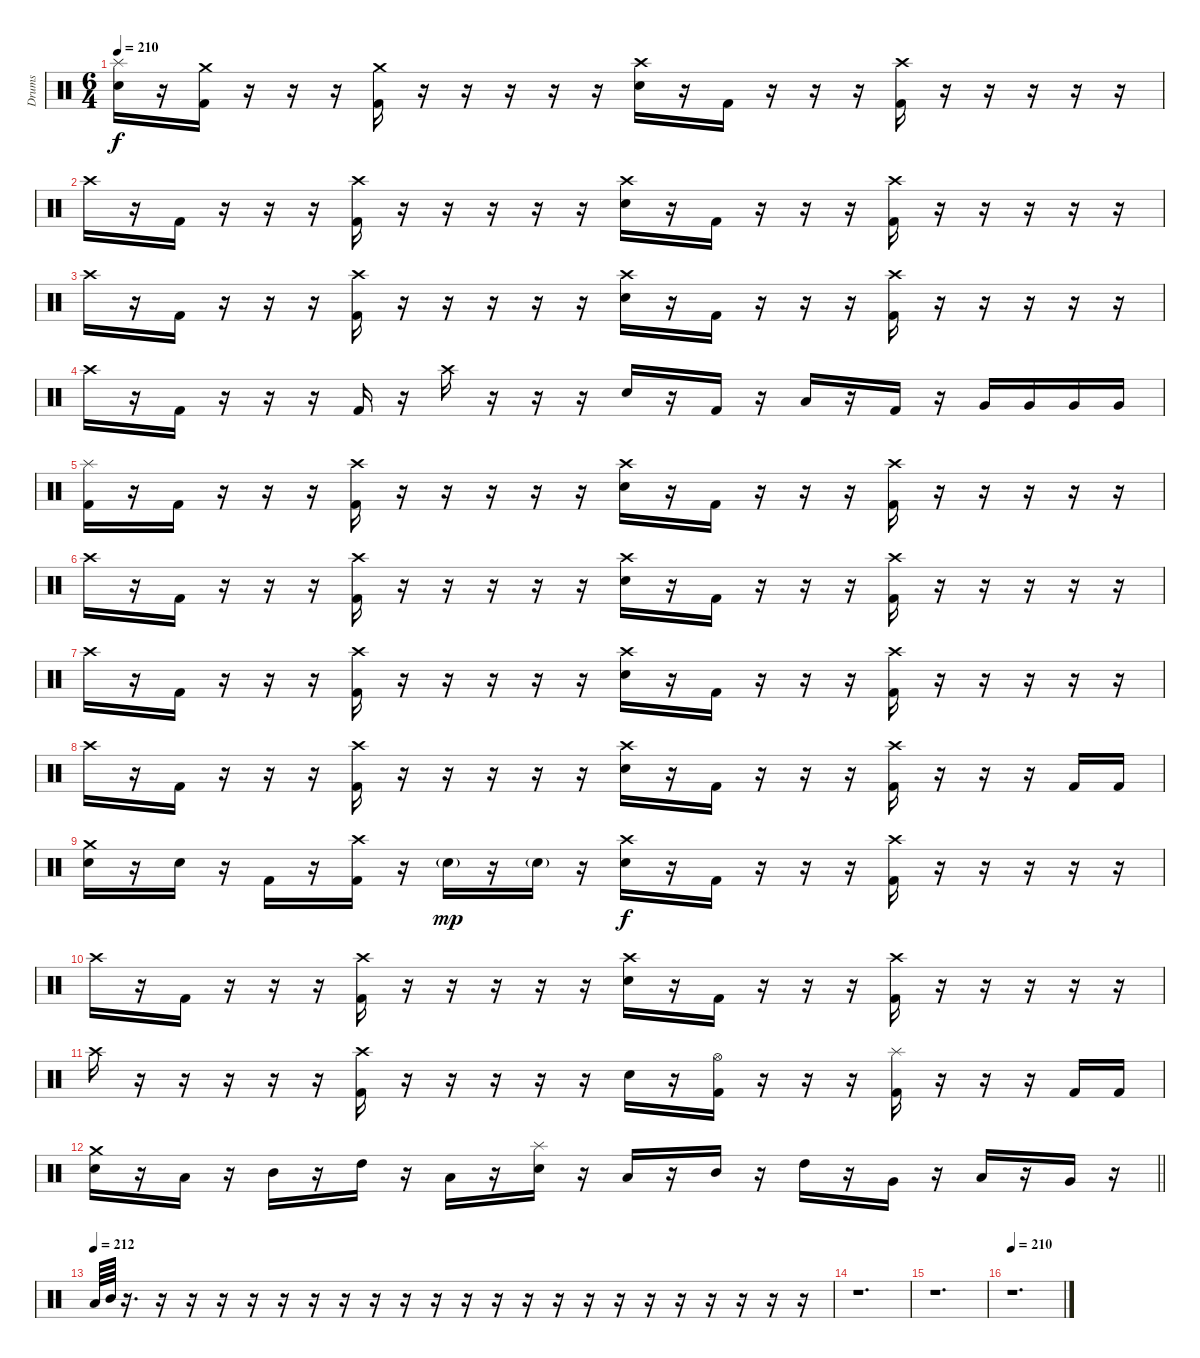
\track ("Drums" "Drums") {instrument percussion}
\staff {score}
\articulation defaults
\ts (6 4)
\tempo 210
\clef neutral
\ks c
("Splash (hit)" "Electric Snare (hit)").16{dy f} r.16 ("Crash medium (hit)" "Kick (hit) 2").16 r.16 r.16 r.16 ("Crash medium (hit)" "Kick (hit) 2").16 r.16 r.16 r.16 r.16 r.16 ("Crash high (hit)" "Electric Snare (hit)").16 r.16 "Kick (hit) 2".16 r.16 r.16 r.16 ("Crash high (hit)" "Kick (hit) 2").16 r.16 r.16 r.16 r.16 r.16 |
"Crash high (hit)".16 r.16 "Kick (hit) 2".16 r.16 r.16 r.16 ("Crash high (hit)" "Kick (hit) 2").16 r.16 r.16 r.16 r.16 r.16 ("Crash high (hit)" "Electric Snare (hit)").16 r.16 "Kick (hit) 2".16 r.16 r.16 r.16 ("Crash high (hit)" "Kick (hit) 2").16 r.16 r.16 r.16 r.16 r.16 |
"Crash high (hit)".16 r.16 "Kick (hit) 2".16 r.16 r.16 r.16 ("Crash high (hit)" "Kick (hit) 2").16 r.16 r.16 r.16 r.16 r.16 ("Crash high (hit)" "Electric Snare (hit)").16 r.16 "Kick (hit) 2".16 r.16 r.16 r.16 ("Crash high (hit)" "Kick (hit) 2").16 r.16 r.16 r.16 r.16 r.16 |
"Crash high (hit)".16 r.16 "Kick (hit) 2".16 r.16 r.16 r.16 "Kick (hit) 2".16 r.16 "Crash high (hit)".16 r.16 r.16 r.16 "Electric Snare (hit)".16 r.16 "Kick (hit) 2".16 r.16 "Low Floor Tom (hit)".16 r.16 "Kick (hit) 2".16 r.16 "Very Low Tom (hit)".16 "Very Low Tom (hit)".16 "Very Low Tom (hit)".16 "Very Low Tom (hit)".16 |
("Splash (hit)" "Kick (hit) 2").16 r.16 "Kick (hit) 2".16 r.16 r.16 r.16 ("Crash high (hit)" "Kick (hit) 2").16 r.16 r.16 r.16 r.16 r.16 ("Crash high (hit)" "Electric Snare (hit)").16 r.16 "Kick (hit) 2".16 r.16 r.16 r.16 ("Crash high (hit)" "Kick (hit) 2").16 r.16 r.16 r.16 r.16 r.16 |
"Crash high (hit)".16 r.16 "Kick (hit) 2".16 r.16 r.16 r.16 ("Crash high (hit)" "Kick (hit) 2").16 r.16 r.16 r.16 r.16 r.16 ("Crash high (hit)" "Electric Snare (hit)").16 r.16 "Kick (hit) 2".16 r.16 r.16 r.16 ("Crash high (hit)" "Kick (hit) 2").16 r.16 r.16 r.16 r.16 r.16 |
"Crash high (hit)".16 r.16 "Kick (hit) 2".16 r.16 r.16 r.16 ("Crash high (hit)" "Kick (hit) 2").16 r.16 r.16 r.16 r.16 r.16 ("Crash high (hit)" "Electric Snare (hit)").16 r.16 "Kick (hit) 2".16 r.16 r.16 r.16 ("Crash high (hit)" "Kick (hit) 2").16 r.16 r.16 r.16 r.16 r.16 |
"Crash high (hit)".16 r.16 "Kick (hit) 2".16 r.16 r.16 r.16 ("Crash high (hit)" "Kick (hit) 2").16 r.16 r.16 r.16 r.16 r.16 ("Crash high (hit)" "Electric Snare (hit)").16 r.16 "Kick (hit) 2".16 r.16 r.16 r.16 ("Crash high (hit)" "Kick (hit) 2").16 r.16 r.16 r.16 "Kick (hit) 2".16 "Kick (hit) 2".16 |
("Crash medium (hit)" "Electric Snare (hit)").16 r.16 "Electric Snare (hit)".16 r.16 "Kick (hit) 2".16 r.16 ("Crash high (hit)" "Kick (hit) 2").16 r.16 "Electric Snare (hit)"{g}.16{dy mp} r.16 "Electric Snare (hit)"{g}.16 r.16 ("Crash high (hit)" "Electric Snare (hit)").16{dy f} r.16 "Kick (hit) 2".16 r.16 r.16 r.16 ("Crash high (hit)" "Kick (hit) 2").16 r.16 r.16 r.16 r.16 r.16 |
"Crash high (hit)".16 r.16 "Kick (hit) 2".16 r.16 r.16 r.16 ("Crash high (hit)" "Kick (hit) 2").16 r.16 r.16 r.16 r.16 r.16 ("Crash high (hit)" "Electric Snare (hit)").16 r.16 "Kick (hit) 2".16 r.16 r.16 r.16 ("Crash high (hit)" "Kick (hit) 2").16 r.16 r.16 r.16 r.16 r.16 |
"Crash high (hit)".16 r.16 r.16 r.16 r.16 r.16 ("Crash high (hit)" "Kick (hit) 2").16 r.16 r.16 r.16 r.16 r.16 "Electric Snare (hit)".16 r.16 ("Hi-Hat (open)" "Kick (hit) 2").16 r.16 r.16 r.16 ("Splash (hit)" "Kick (hit) 2").16 r.16 r.16 r.16 "Kick (hit) 2".16 "Kick (hit) 2".16 |
\barLineRight lightlight
("Crash medium (hit)" "Electric Snare (hit)").16 r.16 "Low Tom (hit)".16 r.16 "Mid Tom (hit)".16 r.16 "High Tom (hit)".16 r.16 "Low Tom (hit)".16 r.16 ("Splash (hit)" "Electric Snare (hit)").16 r.16 "Low Tom (hit)".16 r.16 "Mid Tom (hit)".16 r.16 "High Tom (hit)".16 r.16 "Very Low Tom (hit)".16 r.16 "Low Tom (hit)".16 r.16 "Very Low Tom (hit)".16 r.16 |
\section ("" "")
\tempo (212)
"Low Tom (hit)".64 "Mid Tom (hit)".64 r.16{d} r.16 r.16 r.16 r.16 r.16 r.16 r.16 r.16 r.16 r.16 r.16 r.16 r.16 r.16 r.16 r.16 r.16 r.16 r.16 r.16 r.16 r.16 |
r.1{d} |
r.1{d} |
\tempo 210
r.1{d}
